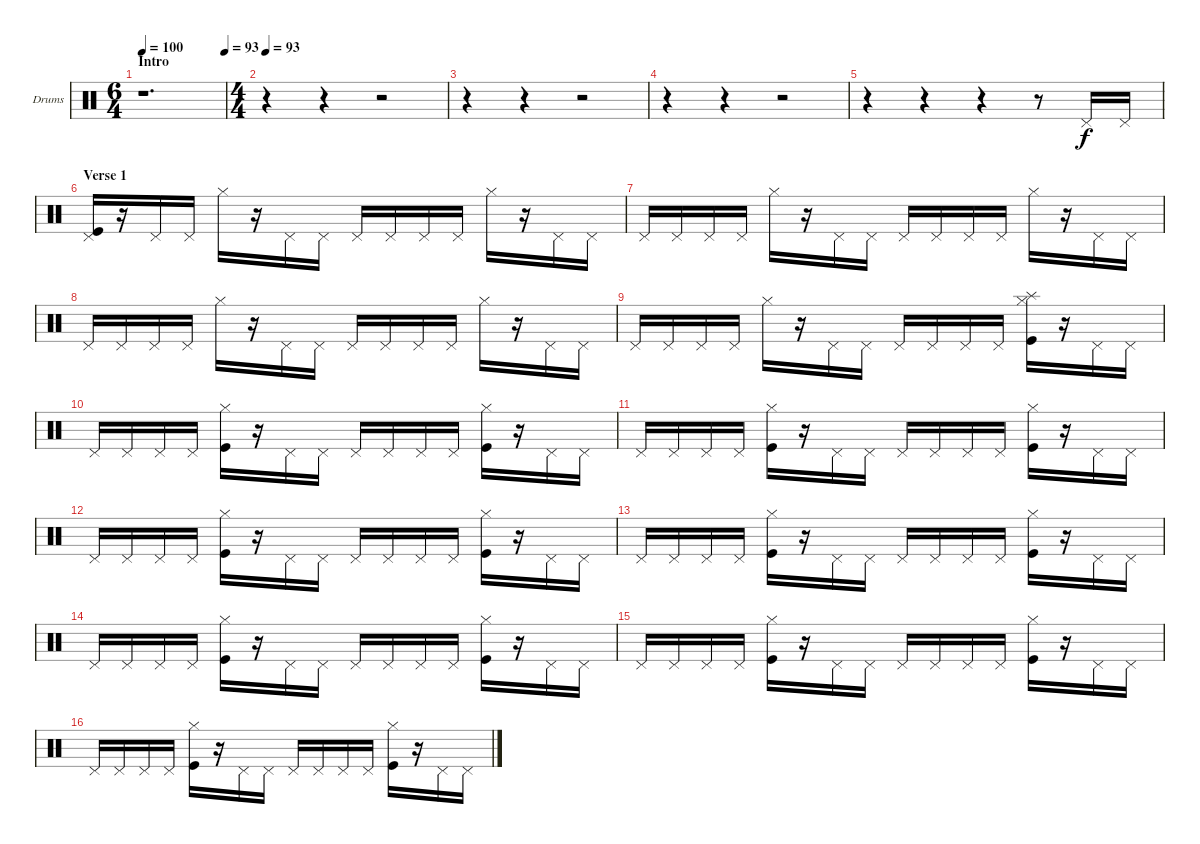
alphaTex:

\bracketExtendMode groupsimilarinstruments
\firstSystemTrackNameOrientation horizontal
\otherSystemsTrackNameOrientation horizontal
\track ("Drumkit" "Drums") {instrument percussion}
\staff {score}
\articulation defaults
\ts (6 4)
\section ("" "Intro")
\tempo 100
\tempo (93 1)
\clef neutral
\ks c
r.1{d dy f} |
\ts (4 4)
\tempo 93
r.4 r.4 r.2 |
r.4 r.4 r.2 |
r.4 r.4 r.2 |
r.4 r.4 r.4 r.8 "Pedal Hi-Hat (hit)".16 "Pedal Hi-Hat (hit)".16 |
\section ("" "Verse 1")
("Pedal Hi-Hat (hit)" "Kick (hit)").16 r.16 "Pedal Hi-Hat (hit)".16 "Pedal Hi-Hat (hit)".16 "Hi-Hat (closed)".16 r.16 "Pedal Hi-Hat (hit)".16 "Pedal Hi-Hat (hit)".16 "Pedal Hi-Hat (hit)".16 "Pedal Hi-Hat (hit)".16 "Pedal Hi-Hat (hit)".16 "Pedal Hi-Hat (hit)".16 "Hi-Hat (closed)".16 r.16 "Pedal Hi-Hat (hit)".16 "Pedal Hi-Hat (hit)".16 |
"Pedal Hi-Hat (hit)".16 "Pedal Hi-Hat (hit)".16 "Pedal Hi-Hat (hit)".16 "Pedal Hi-Hat (hit)".16 "Hi-Hat (closed)".16 r.16 "Pedal Hi-Hat (hit)".16 "Pedal Hi-Hat (hit)".16 "Pedal Hi-Hat (hit)".16 "Pedal Hi-Hat (hit)".16 "Pedal Hi-Hat (hit)".16 "Pedal Hi-Hat (hit)".16 "Hi-Hat (closed)".16 r.16 "Pedal Hi-Hat (hit)".16 "Pedal Hi-Hat (hit)".16 |
"Pedal Hi-Hat (hit)".16 "Pedal Hi-Hat (hit)".16 "Pedal Hi-Hat (hit)".16 "Pedal Hi-Hat (hit)".16 "Hi-Hat (closed)".16 r.16 "Pedal Hi-Hat (hit)".16 "Pedal Hi-Hat (hit)".16 "Pedal Hi-Hat (hit)".16 "Pedal Hi-Hat (hit)".16 "Pedal Hi-Hat (hit)".16 "Pedal Hi-Hat (hit)".16 "Hi-Hat (closed)".16 r.16 "Pedal Hi-Hat (hit)".16 "Pedal Hi-Hat (hit)".16 |
"Pedal Hi-Hat (hit)".16 "Pedal Hi-Hat (hit)".16 "Pedal Hi-Hat (hit)".16 "Pedal Hi-Hat (hit)".16 "Hi-Hat (closed)".16 r.16 "Pedal Hi-Hat (hit)".16 "Pedal Hi-Hat (hit)".16 "Pedal Hi-Hat (hit)".16 "Pedal Hi-Hat (hit)".16 "Pedal Hi-Hat (hit)".16 "Pedal Hi-Hat (hit)".16 ("Splash (hit)" "Hi-Hat (closed)" "Kick (hit)").16 r.16 "Pedal Hi-Hat (hit)".16 "Pedal Hi-Hat (hit)".16 |
"Pedal Hi-Hat (hit)".16 "Pedal Hi-Hat (hit)".16 "Pedal Hi-Hat (hit)".16 "Pedal Hi-Hat (hit)".16 ("Hi-Hat (closed)" "Kick (hit)").16 r.16 "Pedal Hi-Hat (hit)".16 "Pedal Hi-Hat (hit)".16 "Pedal Hi-Hat (hit)".16 "Pedal Hi-Hat (hit)".16 "Pedal Hi-Hat (hit)".16 "Pedal Hi-Hat (hit)".16 ("Hi-Hat (closed)" "Kick (hit)").16 r.16 "Pedal Hi-Hat (hit)".16 "Pedal Hi-Hat (hit)".16 |
"Pedal Hi-Hat (hit)".16 "Pedal Hi-Hat (hit)".16 "Pedal Hi-Hat (hit)".16 "Pedal Hi-Hat (hit)".16 ("Hi-Hat (closed)" "Kick (hit)").16 r.16 "Pedal Hi-Hat (hit)".16 "Pedal Hi-Hat (hit)".16 "Pedal Hi-Hat (hit)".16 "Pedal Hi-Hat (hit)".16 "Pedal Hi-Hat (hit)".16 "Pedal Hi-Hat (hit)".16 ("Hi-Hat (closed)" "Kick (hit)").16 r.16 "Pedal Hi-Hat (hit)".16 "Pedal Hi-Hat (hit)".16 |
"Pedal Hi-Hat (hit)".16 "Pedal Hi-Hat (hit)".16 "Pedal Hi-Hat (hit)".16 "Pedal Hi-Hat (hit)".16 ("Hi-Hat (closed)" "Kick (hit)").16 r.16 "Pedal Hi-Hat (hit)".16 "Pedal Hi-Hat (hit)".16 "Pedal Hi-Hat (hit)".16 "Pedal Hi-Hat (hit)".16 "Pedal Hi-Hat (hit)".16 "Pedal Hi-Hat (hit)".16 ("Hi-Hat (closed)" "Kick (hit)").16 r.16 "Pedal Hi-Hat (hit)".16 "Pedal Hi-Hat (hit)".16 |
"Pedal Hi-Hat (hit)".16 "Pedal Hi-Hat (hit)".16 "Pedal Hi-Hat (hit)".16 "Pedal Hi-Hat (hit)".16 ("Hi-Hat (closed)" "Kick (hit)").16 r.16 "Pedal Hi-Hat (hit)".16 "Pedal Hi-Hat (hit)".16 "Pedal Hi-Hat (hit)".16 "Pedal Hi-Hat (hit)".16 "Pedal Hi-Hat (hit)".16 "Pedal Hi-Hat (hit)".16 ("Hi-Hat (closed)" "Kick (hit)").16 r.16 "Pedal Hi-Hat (hit)".16 "Pedal Hi-Hat (hit)".16 |
"Pedal Hi-Hat (hit)".16 "Pedal Hi-Hat (hit)".16 "Pedal Hi-Hat (hit)".16 "Pedal Hi-Hat (hit)".16 ("Hi-Hat (closed)" "Kick (hit)").16 r.16 "Pedal Hi-Hat (hit)".16 "Pedal Hi-Hat (hit)".16 "Pedal Hi-Hat (hit)".16 "Pedal Hi-Hat (hit)".16 "Pedal Hi-Hat (hit)".16 "Pedal Hi-Hat (hit)".16 ("Hi-Hat (closed)" "Kick (hit)").16 r.16 "Pedal Hi-Hat (hit)".16 "Pedal Hi-Hat (hit)".16 |
"Pedal Hi-Hat (hit)".16 "Pedal Hi-Hat (hit)".16 "Pedal Hi-Hat (hit)".16 "Pedal Hi-Hat (hit)".16 ("Hi-Hat (closed)" "Kick (hit)").16 r.16 "Pedal Hi-Hat (hit)".16 "Pedal Hi-Hat (hit)".16 "Pedal Hi-Hat (hit)".16 "Pedal Hi-Hat (hit)".16 "Pedal Hi-Hat (hit)".16 "Pedal Hi-Hat (hit)".16 ("Hi-Hat (closed)" "Kick (hit)").16 r.16 "Pedal Hi-Hat (hit)".16 "Pedal Hi-Hat (hit)".16 |
"Pedal Hi-Hat (hit)".16 "Pedal Hi-Hat (hit)".16 "Pedal Hi-Hat (hit)".16 "Pedal Hi-Hat (hit)".16 ("Hi-Hat (closed)" "Kick (hit)").16 r.16 "Pedal Hi-Hat (hit)".16 "Pedal Hi-Hat (hit)".16 "Pedal Hi-Hat (hit)".16 "Pedal Hi-Hat (hit)".16 "Pedal Hi-Hat (hit)".16 "Pedal Hi-Hat (hit)".16 ("Hi-Hat (closed)" "Kick (hit)").16 r.16 "Pedal Hi-Hat (hit)".16 "Pedal Hi-Hat (hit)".16
